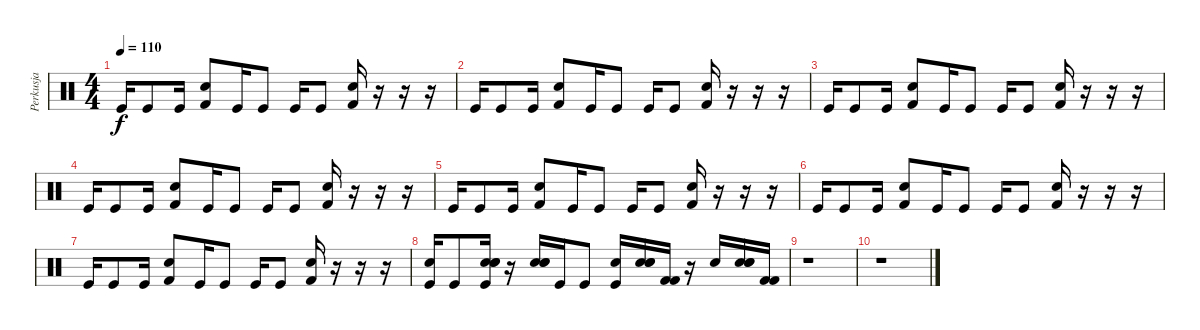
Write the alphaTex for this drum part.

\track ("Perkusja" "Perkusja") {instrument percussion}
\staff {score}
\articulation defaults
\ts (4 4)
\tempo 110
\clef neutral
\ks c "Kick (hit)".16{dy f} "Kick (hit)".8 "Kick (hit)".16
("Kick (hit) 2" "Electric Snare (hit)").8 "Kick (hit)".16 "Kick (hit)".8 "Kick (hit)".16 "Kick (hit)".8 ("Kick (hit) 2" "Electric Snare (hit)").16 r.16 r.16 r.16 |
"Kick (hit)".16 "Kick (hit)".8 "Kick (hit)".16 ("Kick (hit) 2" "Electric Snare (hit)").8 "Kick (hit)".16 "Kick (hit)".8 "Kick (hit)".16 "Kick (hit)".8 ("Kick (hit) 2" "Electric Snare (hit)").16 r.16 r.16 r.16 |
"Kick (hit)".16 "Kick (hit)".8 "Kick (hit)".16 ("Kick (hit) 2" "Electric Snare (hit)").8 "Kick (hit)".16 "Kick (hit)".8 "Kick (hit)".16 "Kick (hit)".8 ("Kick (hit) 2" "Electric Snare (hit)").16 r.16 r.16 r.16 |
"Kick (hit)".16 "Kick (hit)".8 "Kick (hit)".16 ("Kick (hit) 2" "Electric Snare (hit)").8 "Kick (hit)".16 "Kick (hit)".8 "Kick (hit)".16 "Kick (hit)".8 ("Kick (hit) 2" "Electric Snare (hit)").16 r.16 r.16 r.16 |
"Kick (hit)".16 "Kick (hit)".8 "Kick (hit)".16 ("Kick (hit) 2" "Electric Snare (hit)").8 "Kick (hit)".16 "Kick (hit)".8 "Kick (hit)".16 "Kick (hit)".8 ("Kick (hit) 2" "Electric Snare (hit)").16 r.16 r.16 r.16 |
"Kick (hit)".16 "Kick (hit)".8 "Kick (hit)".16 ("Kick (hit) 2" "Electric Snare (hit)").8 "Kick (hit)".16 "Kick (hit)".8 "Kick (hit)".16 "Kick (hit)".8 ("Kick (hit) 2" "Electric Snare (hit)").16 r.16 r.16 r.16 |
"Kick (hit)".16 "Kick (hit)".8 "Kick (hit)".16 ("Kick (hit) 2" "Electric Snare (hit)").8 "Kick (hit)".16 "Kick (hit)".8 "Kick (hit)".16 "Kick (hit)".8 ("Kick (hit) 2" "Electric Snare (hit)").16 r.16 r.16 r.16 |
("Electric Snare (hit)" "Kick (hit)").16 "Kick (hit)".8 ("Snare (hit) 2" "Snare (hit) 2" "Electric Snare (hit)" "Kick (hit)").16 r.16 ("Snare (hit) 2" "Snare (hit) 2" "Electric Snare (hit)").16 "Kick (hit)".16 "Kick (hit)".8 ("Electric Snare (hit)" "Kick (hit)").16 ("Snare (hit) 2" "Snare (hit) 2" "Electric Snare (hit)").16 ("Kick (hit) 2" "Kick (hit) 2").16 r.16 "Electric Snare (hit)".16 ("Snare (hit) 2" "Snare (hit) 2" "Electric Snare (hit)").16 ("Kick (hit) 2" "Kick (hit) 2").16 |
r.1 |
r.1
